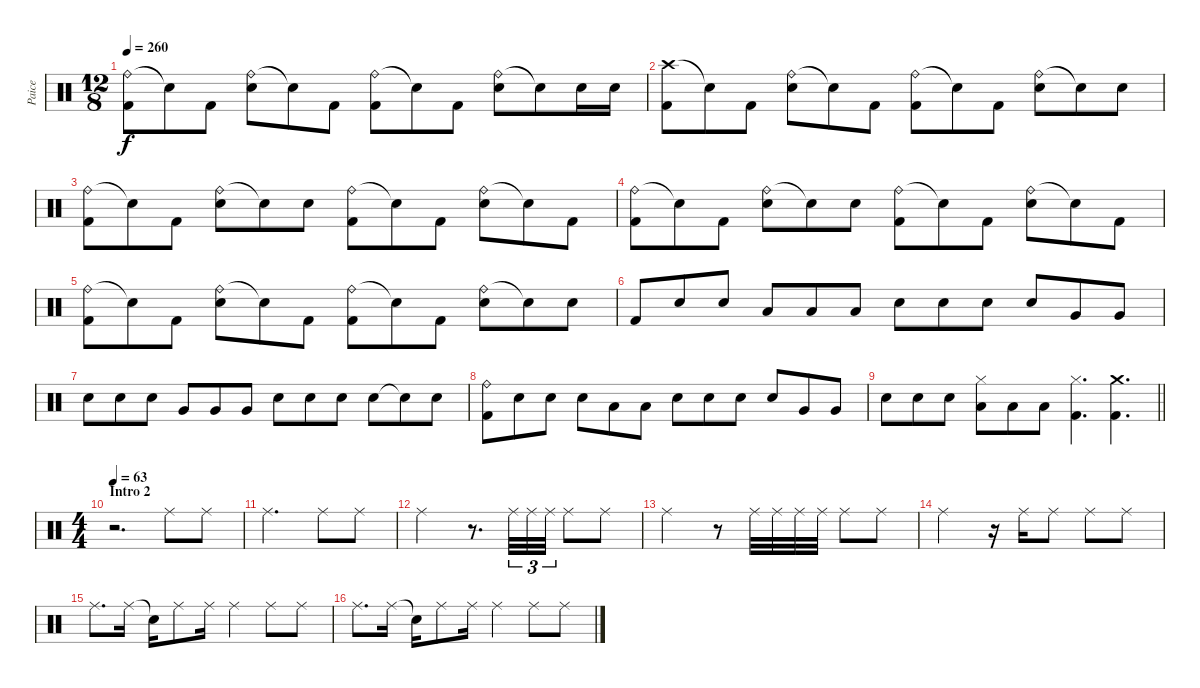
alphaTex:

\track ("Paice" "Paice") {instrument percussion}
\staff {score}
\articulation defaults
\ts (12 8)
\tempo 260
\clef neutral
\ks c
("Ride (bell)" "Kick (hit) 2").8{dy f} "Snare (hit)"{t}.8 "Kick (hit) 2".8 ("Ride (bell)" "Electric Snare (hit)").8 "Snare (hit)"{t}.8 "Kick (hit) 2".8 ("Ride (bell)" "Kick (hit) 2").8 "Snare (hit)"{t}.8 "Kick (hit) 2".8 ("Ride (bell)" "Electric Snare (hit)").8 "Snare (hit)"{t}.8 "Electric Snare (hit)".16 "Electric Snare (hit)".16 |
("Crash high (hit)" "Kick (hit) 2").8 "Snare (hit)"{t}.8 "Kick (hit) 2".8 ("Ride (bell)" "Electric Snare (hit)").8 "Snare (hit)"{t}.8 "Kick (hit) 2".8 ("Ride (bell)" "Kick (hit) 2").8 "Snare (hit)"{t}.8 "Kick (hit) 2".8 ("Ride (bell)" "Electric Snare (hit)").8 "Snare (hit)"{t}.8 "Electric Snare (hit)".8 |
("Ride (bell)" "Kick (hit) 2").8 "Snare (hit)"{t}.8 "Kick (hit) 2".8 ("Ride (bell)" "Electric Snare (hit)").8 "Snare (hit)"{t}.8 "Electric Snare (hit)".8 ("Ride (bell)" "Kick (hit) 2").8 "Snare (hit)"{t}.8 "Kick (hit) 2".8 ("Ride (bell)" "Electric Snare (hit)").8 "Snare (hit)"{t}.8 "Kick (hit) 2".8 |
("Ride (bell)" "Kick (hit) 2").8 "Snare (hit)"{t}.8 "Kick (hit) 2".8 ("Ride (bell)" "Electric Snare (hit)").8 "Snare (hit)"{t}.8 "Electric Snare (hit)".8 ("Ride (bell)" "Kick (hit) 2").8 "Snare (hit)"{t}.8 "Kick (hit) 2".8 ("Ride (bell)" "Electric Snare (hit)").8 "Snare (hit)"{t}.8 "Kick (hit) 2".8 |
("Ride (bell)" "Kick (hit) 2").8 "Snare (hit)"{t}.8 "Kick (hit) 2".8 ("Ride (bell)" "Electric Snare (hit)").8 "Snare (hit)"{t}.8 "Kick (hit) 2".8 ("Ride (bell)" "Kick (hit) 2").8 "Snare (hit)"{t}.8 "Kick (hit) 2".8 ("Ride (bell)" "Electric Snare (hit)").8 "Snare (hit)"{t}.8 "Electric Snare (hit)".8 |
"Kick (hit) 2".8 "Electric Snare (hit)".8 "Electric Snare (hit)".8 "Low Tom (hit)".8 "Low Tom (hit)".8 "Low Tom (hit)".8 "Electric Snare (hit)".8 "Electric Snare (hit)".8 "Electric Snare (hit)".8 "Electric Snare (hit)".8 "Very Low Tom (hit)".8 "Very Low Tom (hit)".8 |
"Electric Snare (hit)".8 "Electric Snare (hit)".8 "Electric Snare (hit)".8 "Very Low Tom (hit)".8 "Very Low Tom (hit)".8 "Very Low Tom (hit)".8 "Electric Snare (hit)".8 "Electric Snare (hit)".8 "Electric Snare (hit)".8 "Electric Snare (hit)".8 "Snare (hit)"{t}.8 "Electric Snare (hit)".8 |
("Ride (bell)" "Kick (hit) 2").8 "Electric Snare (hit)".8 "Electric Snare (hit)".8 "Electric Snare (hit)".8 "Low Tom (hit)".8 "Low Tom (hit)".8 "Electric Snare (hit)".8 "Electric Snare (hit)".8 "Electric Snare (hit)".8 "Electric Snare (hit)".8 "Very Low Tom (hit)".8 "Very Low Tom (hit)".8 |
\barLineRight lightlight "Electric Snare (hit)".8 "Electric Snare (hit)".8 "Electric Snare (hit)".8
("Hi-Hat (closed)" "Low Tom (hit)").8 "Low Tom (hit)".8 "Low Tom (hit)".8 ("Hi-Hat (closed)" "Kick (hit) 2").4{d} ("Crash medium (hit)" "Kick (hit) 2").4{d} |
\ts (4 4)
\section ("" "Intro 2")
\tempo 63
r.2{d} "Ride (middle)".8 "Ride (middle)".8 |
"Ride (middle)".2{d} "Ride (middle)".8 "Ride (middle)".8 |
"Ride (middle)".2 r.8{d} "Ride (middle)".32{tu (3 2)} "Ride (middle)".32{tu (3 2)} "Ride (middle)".32{tu (3 2)} "Ride (middle)".8 "Ride (middle)".8 |
"Ride (middle)".2 r.8 "Ride (middle)".32 "Ride (middle)".32 "Ride (middle)".32 "Ride (middle)".32 "Ride (middle)".8 "Ride (middle)".8 |
"Ride (middle)".2 r.16 "Ride (middle)".16 "Ride (middle)".8 "Ride (middle)".8 "Ride (middle)".8 |
"Ride (middle)".8{d} "Ride (middle)".16 "Snare (hit)"{t}.16 "Ride (middle)".8 "Ride (middle)".16 "Ride (middle)".4 "Ride (middle)".8 "Ride (middle)".8 |
"Ride (middle)".8{d} "Ride (middle)".16 "Snare (hit)"{t}.16 "Ride (middle)".8 "Ride (middle)".16 "Ride (middle)".4 "Ride (middle)".8 "Ride (middle)".8
